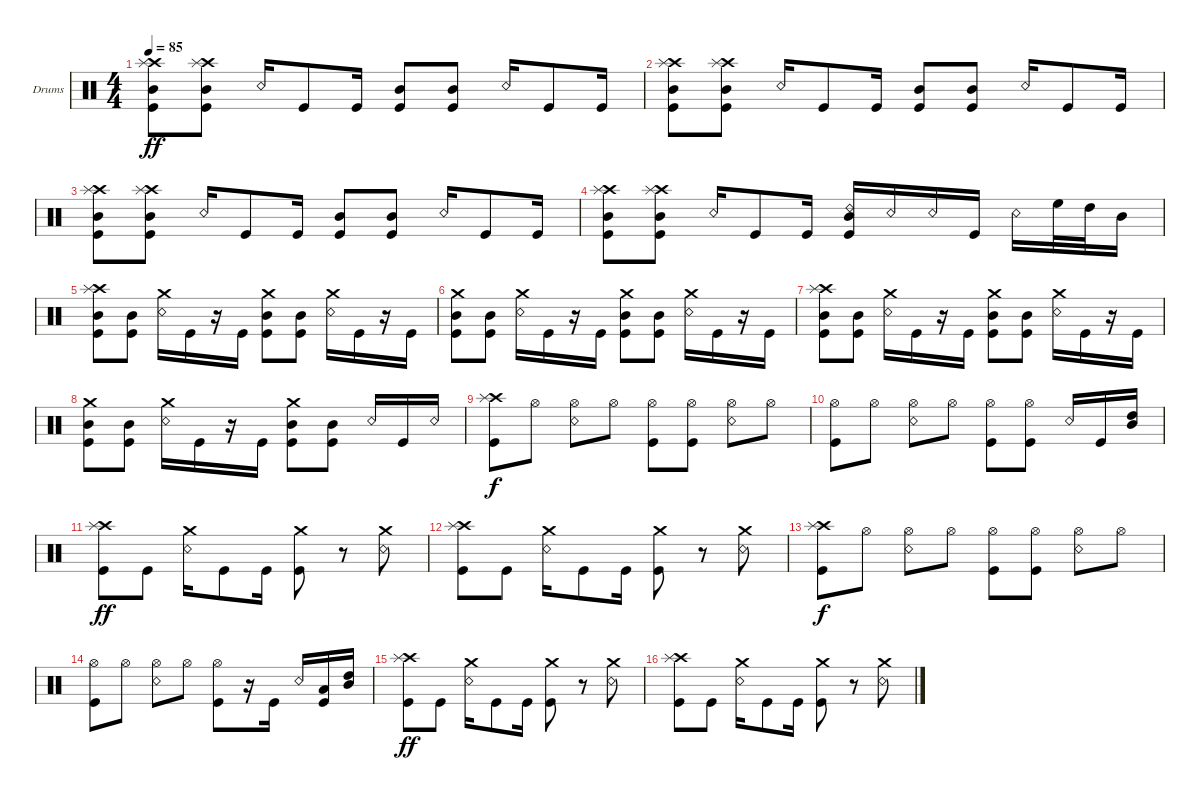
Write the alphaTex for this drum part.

\defaultSystemsLayout 4
\bracketExtendMode groupsimilarinstruments
\firstSystemTrackNameOrientation horizontal
\otherSystemsTrackNameOrientation horizontal
\track ("Drumkit" "Drums") {instrument percussion}
\staff {score}
\articulation defaults
\ts (4 4)
\tempo 85
\clef neutral
\scale
0.472222
\ks c
("Crash high (hit)" "Splash (hit)" "Mid Tom (hit)" "Kick (hit)").8{dy ff} ("Crash high (hit)" "Splash (hit)" "Mid Tom (hit)" "Kick (hit)").8 "Snare (rim shot)".16 "Kick (hit)".8 "Kick (hit)".16 ("Mid Tom (hit)" "Kick (hit)").8 ("Mid Tom (hit)" "Kick (hit)").8 "Snare (rim shot)".16 "Kick (hit)".8 "Kick (hit)".16 |
\scale
0.263889 ("Crash high (hit)" "Splash (hit)" "Mid Tom (hit)" "Kick (hit)").8 ("Crash high (hit)" "Splash (hit)" "Mid Tom (hit)" "Kick (hit)").8 "Snare (rim shot)".16 "Kick (hit)".8 "Kick (hit)".16 ("Mid Tom (hit)" "Kick (hit)").8 ("Mid Tom (hit)" "Kick (hit)").8 "Snare (rim shot)".16 "Kick (hit)".8 "Kick (hit)".16 |
\scale
0.263889 ("Crash high (hit)" "Splash (hit)" "Mid Tom (hit)" "Kick (hit)").8 ("Crash high (hit)" "Splash (hit)" "Mid Tom (hit)" "Kick (hit)").8 "Snare (rim shot)".16 "Kick (hit)".8 "Kick (hit)".16 ("Mid Tom (hit)" "Kick (hit)").8 ("Mid Tom (hit)" "Kick (hit)").8 "Snare (rim shot)".16 "Kick (hit)".8 "Kick (hit)".16 |
\scale
0.333333 ("Crash high (hit)" "Splash (hit)" "Mid Tom (hit)" "Kick (hit)").8 ("Crash high (hit)" "Splash (hit)" "Mid Tom (hit)" "Kick (hit)").8 "Snare (rim shot)".16 "Kick (hit)".8 "Kick (hit)".16 ("Mid Tom (hit)" "Kick (hit)" "Ride (bell) 2").16 "Snare (rim shot)".16 "Snare (rim shot)".16 "Kick (hit)".16 "Snare (rim shot)".16 "High Floor Tom (hit)".32 "High Tom (hit)".32 "Mid Tom (hit)".16 |
\scale
0.333333 ("Crash high (hit)" "Splash (hit)" "Mid Tom (hit)" "Kick (hit)").8 ("Mid Tom (hit)" "Kick (hit)").8 ("Snare (rim shot)" "Crash medium (hit)").16 "Kick (hit)".16 r.16 "Kick (hit)".16 ("Mid Tom (hit)" "Kick (hit)" "Crash medium (hit)").8 ("Mid Tom (hit)" "Kick (hit)").8 ("Snare (rim shot)" "Crash medium (hit)").16 "Kick (hit)".16 r.16 "Kick (hit)".16 |
\scale
0.333333 ("Mid Tom (hit)" "Kick (hit)" "Crash medium (hit)").8 ("Mid Tom (hit)" "Kick (hit)").8 ("Snare (rim shot)" "Crash medium (hit)").16 "Kick (hit)".16 r.16 "Kick (hit)".16 ("Mid Tom (hit)" "Kick (hit)" "Crash medium (hit)").8 ("Mid Tom (hit)" "Kick (hit)").8 ("Snare (rim shot)" "Crash medium (hit)").16 "Kick (hit)".16 r.16 "Kick (hit)".16 |
\scale
0.333333 ("Crash high (hit)" "Splash (hit)" "Mid Tom (hit)" "Kick (hit)").8 ("Mid Tom (hit)" "Kick (hit)").8 ("Snare (rim shot)" "Crash medium (hit)").16 "Kick (hit)".16 r.16 "Kick (hit)".16 ("Mid Tom (hit)" "Kick (hit)" "Crash medium (hit)").8 ("Mid Tom (hit)" "Kick (hit)").8 ("Snare (rim shot)" "Crash medium (hit)").16 "Kick (hit)".16 r.16 "Kick (hit)".16 |
\scale
0.333333 ("Mid Tom (hit)" "Kick (hit)" "Crash medium (hit)").8 ("Mid Tom (hit)" "Kick (hit)").8 ("Snare (rim shot)" "Crash medium (hit)").16 "Kick (hit)".16 r.16 "Kick (hit)".16 ("Mid Tom (hit)" "Kick (hit)" "Crash medium (hit)").8 ("Mid Tom (hit)" "Kick (hit)").8 "Snare (rim shot)".16 "Kick (hit)".16 "Snare (rim shot)".16 |
\scale
0.333333 ("Kick (hit)" "Crash high (hit)" "Splash (hit)").8{dy f} "Hi-Hat (open)".8 ("Snare (rim shot)" "Hi-Hat (open)").8 "Hi-Hat (open)".8 ("Kick (hit)" "Hi-Hat (open)").8 ("Kick (hit)" "Hi-Hat (open)").8 ("Snare (rim shot)" "Hi-Hat (open)").8 "Hi-Hat (open)".8 |
\scale
0.333333 ("Kick (hit)" "Hi-Hat (open)").8 "Hi-Hat (open)".8 ("Snare (rim shot)" "Hi-Hat (open)").8 "Hi-Hat (open)".8 ("Kick (hit)" "Hi-Hat (open)").8 ("Hi-Hat (open)" "Kick (hit)").8 "Snare (rim shot)".16 "Kick (hit)".16 ("Mid Tom (hit)" "High Tom (hit)").16 |
\scale
0.333333 ("Kick (hit)" "Crash high (hit)" "Splash (hit)").8{dy ff} "Kick (hit)".8 ("Snare (rim shot)" "Crash medium (hit)").16 "Kick (hit)".8 "Kick (hit)".16 ("Kick (hit)" "Crash medium (hit)").8 r.8 ("Snare (rim shot)" "Crash medium (hit)").8 |
\scale
0.333333 ("Kick (hit)" "Crash high (hit)" "Splash (hit)").8 "Kick (hit)".8 ("Snare (rim shot)" "Crash medium (hit)").16 "Kick (hit)".8 "Kick (hit)".16 ("Kick (hit)" "Crash medium (hit)").8 r.8 ("Snare (rim shot)" "Crash medium (hit)").8 |
\scale
0.333333 ("Kick (hit)" "Crash high (hit)" "Splash (hit)").8{dy f} "Hi-Hat (open)".8 ("Snare (rim shot)" "Hi-Hat (open)").8 "Hi-Hat (open)".8 ("Kick (hit)" "Hi-Hat (open)").8 ("Kick (hit)" "Hi-Hat (open)").8 ("Snare (rim shot)" "Hi-Hat (open)").8 "Hi-Hat (open)".8 |
\scale
0.333333 ("Kick (hit)" "Hi-Hat (open)").8 "Hi-Hat (open)".8 ("Snare (rim shot)" "Hi-Hat (open)").8 "Hi-Hat (open)".8 ("Kick (hit)" "Hi-Hat (open)").8 r.16 "Kick (hit)".16 "Snare (rim shot)".16 ("Kick (hit)" "Low Tom (hit)").16 ("Mid Tom (hit)" "High Tom (hit)").16 |
\scale
0.333333 ("Kick (hit)" "Crash high (hit)" "Splash (hit)").8{dy ff} "Kick (hit)".8 ("Snare (rim shot)" "Crash medium (hit)").16 "Kick (hit)".8 "Kick (hit)".16 ("Kick (hit)" "Crash medium (hit)").8 r.8 ("Snare (rim shot)" "Crash medium (hit)").8 |
\scale
0.333333 ("Kick (hit)" "Crash high (hit)" "Splash (hit)").8 "Kick (hit)".8 ("Snare (rim shot)" "Crash medium (hit)").16 "Kick (hit)".8 "Kick (hit)".16 ("Kick (hit)" "Crash medium (hit)").8 r.8 ("Snare (rim shot)" "Crash medium (hit)").8
